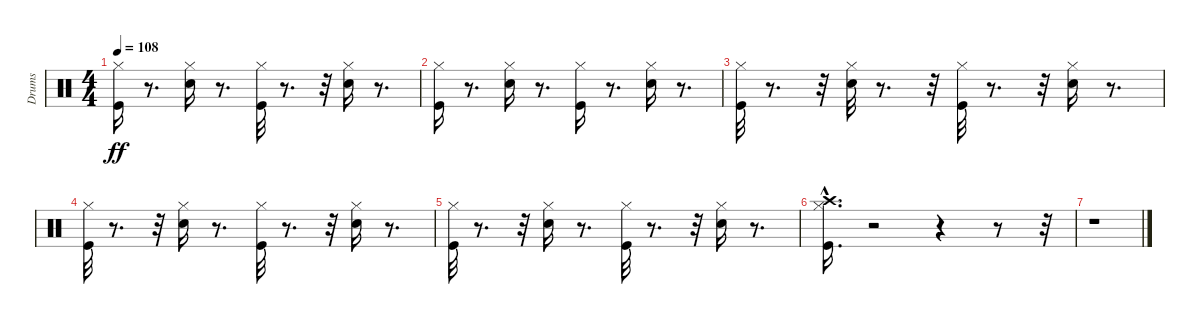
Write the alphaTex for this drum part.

\track ("Drums" "Drums") {instrument percussion}
\staff {score}
\articulation defaults
\ts (4 4)
\tempo 108
\clef neutral
\ks c
("Hi-Hat (closed)" "Kick (hit)").16{dy ff} r.8{d} ("Hi-Hat (closed)" "Electric Snare (hit)").16 r.8{d} ("Kick (hit)" "Hi-Hat (closed)").32 r.8{d} r.32 ("Electric Snare (hit)" "Hi-Hat (closed)").16 r.8{d} |
("Kick (hit)" "Hi-Hat (closed)").16 r.8{d} ("Electric Snare (hit)" "Hi-Hat (closed)").16 r.8{d} ("Kick (hit)" "Hi-Hat (closed)").16 r.8{d} ("Electric Snare (hit)" "Hi-Hat (closed)").16 r.8{d} |
("Kick (hit)" "Hi-Hat (closed)").32 r.8{d} r.32 ("Electric Snare (hit)" "Hi-Hat (closed)").32 r.8{d} r.32 ("Kick (hit)" "Hi-Hat (closed)").32 r.8{d} r.32 ("Hi-Hat (closed)" "Electric Snare (hit)").16 r.8{d} |
("Kick (hit)" "Hi-Hat (closed)").32 r.8{d} r.32 ("Electric Snare (hit)" "Hi-Hat (closed)").16 r.8{d} ("Kick (hit)" "Hi-Hat (closed)").32 r.8{d} r.32 ("Electric Snare (hit)" "Hi-Hat (closed)").16 r.8{d} |
("Kick (hit)" "Hi-Hat (closed)").32 r.8{d} r.32 ("Electric Snare (hit)" "Hi-Hat (closed)").16 r.8{d} ("Kick (hit)" "Hi-Hat (closed)").32 r.8{d} r.32 ("Electric Snare (hit)" "Hi-Hat (closed)").16 r.8{d} |
("Hi-Hat (closed)" "Crash high (hit)"{hac} "Kick (hit)").16{d} r.2 r.4 r.8 r.32 |
r.1
